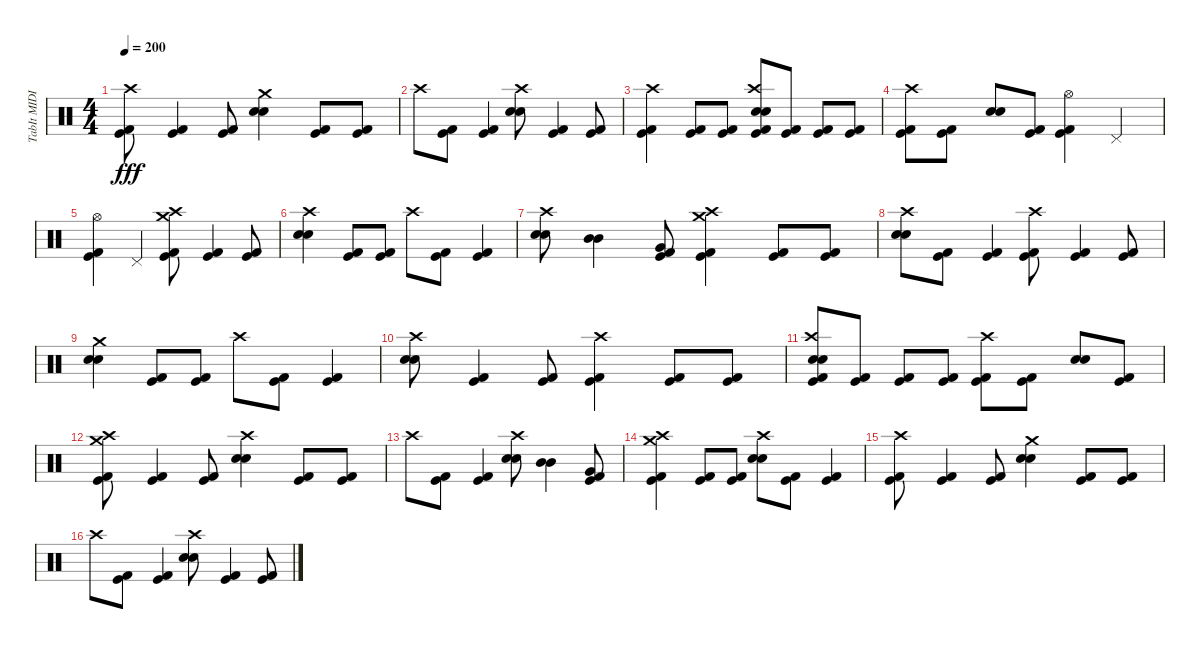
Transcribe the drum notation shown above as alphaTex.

\track ("TabIt MIDI - Track 4" "TabIt MIDI") {instrument percussion}
\staff {score}
\articulation defaults
\ts (4 4)
\tempo 200
\clef neutral
\ks c
("Kick (hit)" "Kick (hit) 2" "Crash high (hit)").8{dy fff} ("Kick (hit)" "Kick (hit) 2").4 ("Kick (hit)" "Kick (hit) 2").8 ("Electric Snare (hit)" "Electric Snare (hit)" "Crash medium (hit)").4 ("Kick (hit)" "Kick (hit) 2").8 ("Kick (hit)" "Kick (hit) 2").8 |
"Crash high (hit)".8 ("Kick (hit)" "Kick (hit) 2").8 ("Kick (hit)" "Kick (hit) 2").4 ("Electric Snare (hit)" "Electric Snare (hit)" "Crash high (hit)").8 ("Kick (hit)" "Kick (hit) 2").4 ("Kick (hit)" "Kick (hit) 2").8 |
("Kick (hit)" "Kick (hit) 2" "Crash high (hit)").4 ("Kick (hit)" "Kick (hit) 2").8 ("Kick (hit)" "Kick (hit) 2").8 ("Kick (hit)" "Kick (hit) 2" "Electric Snare (hit)" "Electric Snare (hit)" "Crash high (hit)").8 ("Kick (hit)" "Kick (hit) 2").8 ("Kick (hit)" "Kick (hit) 2").8 ("Kick (hit)" "Kick (hit) 2").8 |
("Kick (hit)" "Kick (hit) 2" "Crash high (hit)").8 ("Kick (hit)" "Kick (hit) 2").8 ("Electric Snare (hit)" "Electric Snare (hit)").8 ("Kick (hit)" "Kick (hit) 2").8 ("Kick (hit)" "Kick (hit) 2" "Hi-Hat (open)").4 "Pedal Hi-Hat (hit)".4 |
("Kick (hit)" "Kick (hit) 2" "Hi-Hat (open)").4 "Pedal Hi-Hat (hit)".4 ("Kick (hit)" "Kick (hit) 2" "Crash medium (hit)" "Crash high (hit)").8 ("Kick (hit)" "Kick (hit) 2").4 ("Kick (hit)" "Kick (hit) 2").8 |
("Electric Snare (hit)" "Electric Snare (hit)" "Crash high (hit)").4 ("Kick (hit)" "Kick (hit) 2").8 ("Kick (hit)" "Kick (hit) 2").8 "Crash high (hit)".8 ("Kick (hit)" "Kick (hit) 2").8 ("Kick (hit)" "Kick (hit) 2").4 |
("Electric Snare (hit)" "Electric Snare (hit)" "Crash high (hit)").8 ("Mid Tom (hit)" "Mid Tom (hit)").4 ("Kick (hit)" "Kick (hit) 2" "Very Low Tom (hit)").8 ("Kick (hit)" "Kick (hit) 2" "Crash medium (hit)" "Crash high (hit)").4 ("Kick (hit)" "Kick (hit) 2").8 ("Kick (hit)" "Kick (hit) 2").8 |
("Electric Snare (hit)" "Electric Snare (hit)" "Crash high (hit)").8 ("Kick (hit)" "Kick (hit) 2").8 ("Kick (hit)" "Kick (hit) 2").4 ("Kick (hit)" "Kick (hit) 2" "Crash high (hit)").8 ("Kick (hit)" "Kick (hit) 2").4 ("Kick (hit)" "Kick (hit) 2").8 |
("Electric Snare (hit)" "Electric Snare (hit)" "Crash medium (hit)").4 ("Kick (hit)" "Kick (hit) 2").8 ("Kick (hit)" "Kick (hit) 2").8 "Crash high (hit)".8 ("Kick (hit)" "Kick (hit) 2").8 ("Kick (hit)" "Kick (hit) 2").4 |
("Electric Snare (hit)" "Electric Snare (hit)" "Crash high (hit)").8 ("Kick (hit)" "Kick (hit) 2").4 ("Kick (hit)" "Kick (hit) 2").8 ("Kick (hit)" "Kick (hit) 2" "Crash high (hit)").4 ("Kick (hit)" "Kick (hit) 2").8 ("Kick (hit)" "Kick (hit) 2").8 |
("Kick (hit)" "Kick (hit) 2" "Electric Snare (hit)" "Electric Snare (hit)" "Crash high (hit)").8 ("Kick (hit)" "Kick (hit) 2").8 ("Kick (hit)" "Kick (hit) 2").8 ("Kick (hit)" "Kick (hit) 2").8 ("Kick (hit)" "Kick (hit) 2" "Crash high (hit)").8 ("Kick (hit)" "Kick (hit) 2").8 ("Electric Snare (hit)" "Electric Snare (hit)").8 ("Kick (hit)" "Kick (hit) 2").8 |
("Kick (hit)" "Kick (hit) 2" "Crash medium (hit)" "Crash high (hit)").8 ("Kick (hit)" "Kick (hit) 2").4 ("Kick (hit)" "Kick (hit) 2").8 ("Electric Snare (hit)" "Electric Snare (hit)" "Crash high (hit)").4 ("Kick (hit)" "Kick (hit) 2").8 ("Kick (hit)" "Kick (hit) 2").8 |
"Crash high (hit)".8 ("Kick (hit)" "Kick (hit) 2").8 ("Kick (hit)" "Kick (hit) 2").4 ("Electric Snare (hit)" "Electric Snare (hit)" "Crash high (hit)").8 ("Mid Tom (hit)" "Mid Tom (hit)").4 ("Kick (hit)" "Kick (hit) 2" "Very Low Tom (hit)").8 |
("Kick (hit)" "Kick (hit) 2" "Crash medium (hit)" "Crash high (hit)").4 ("Kick (hit)" "Kick (hit) 2").8 ("Kick (hit)" "Kick (hit) 2").8 ("Electric Snare (hit)" "Electric Snare (hit)" "Crash high (hit)").8 ("Kick (hit)" "Kick (hit) 2").8 ("Kick (hit)" "Kick (hit) 2").4 |
("Kick (hit)" "Kick (hit) 2" "Crash high (hit)").8 ("Kick (hit)" "Kick (hit) 2").4 ("Kick (hit)" "Kick (hit) 2").8 ("Electric Snare (hit)" "Electric Snare (hit)" "Crash medium (hit)").4 ("Kick (hit)" "Kick (hit) 2").8 ("Kick (hit)" "Kick (hit) 2").8 |
"Crash high (hit)".8 ("Kick (hit)" "Kick (hit) 2").8 ("Kick (hit)" "Kick (hit) 2").4 ("Electric Snare (hit)" "Electric Snare (hit)" "Crash high (hit)").8 ("Kick (hit)" "Kick (hit) 2").4 ("Kick (hit)" "Kick (hit) 2").8
